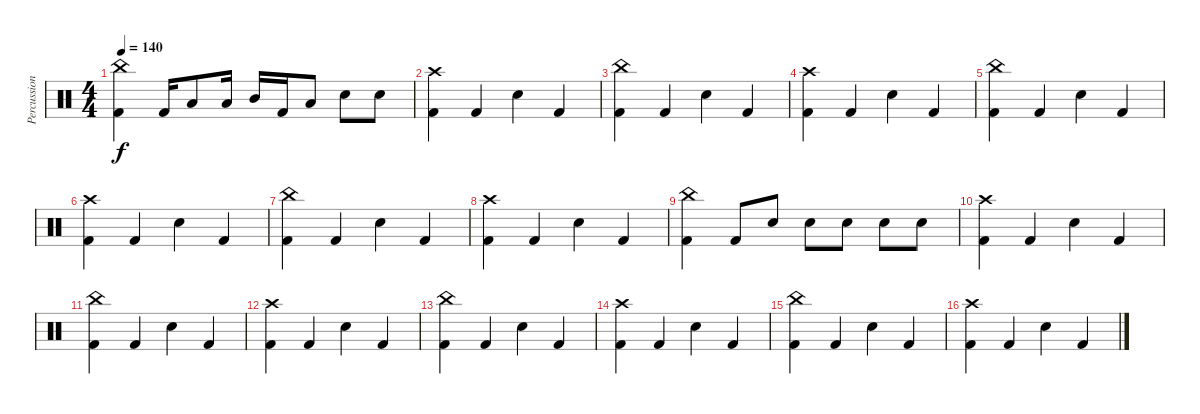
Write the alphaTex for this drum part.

\track ("Percussion" "Percussion") {instrument percussion}
\staff {score}
\articulation defaults
\ts (4 4)
\tempo 140
\clef neutral
\ks c
("Kick (hit) 2" "China (hit)").4{dy f} "Kick (hit) 2".16 "Low Tom (hit)".8 "Low Floor Tom (hit)".16 "Mid Tom (hit)".16 "Kick (hit) 2".16 "Low Floor Tom (hit)".8 "Snare (hit) 2".8 "Snare (hit) 2".8 |
("Kick (hit) 2" "Crash high (hit)").4 "Kick (hit) 2".4 "Snare (hit) 2".4 "Kick (hit) 2".4 |
("Kick (hit) 2" "China (hit)").4 "Kick (hit) 2".4 "Snare (hit) 2".4 "Kick (hit) 2".4 |
("Kick (hit) 2" "Crash high (hit)").4 "Kick (hit) 2".4 "Snare (hit) 2".4 "Kick (hit) 2".4 |
("Kick (hit) 2" "China (hit)").4 "Kick (hit) 2".4 "Snare (hit) 2".4 "Kick (hit) 2".4 |
("Kick (hit) 2" "Crash high (hit)").4 "Kick (hit) 2".4 "Snare (hit) 2".4 "Kick (hit) 2".4 |
("Kick (hit) 2" "China (hit)").4 "Kick (hit) 2".4 "Snare (hit) 2".4 "Kick (hit) 2".4 |
("Kick (hit) 2" "Crash high (hit)").4 "Kick (hit) 2".4 "Snare (hit) 2".4 "Kick (hit) 2".4 |
("Kick (hit) 2" "China (hit)").4 "Kick (hit) 2".8 "Snare (hit) 2".8 "Snare (hit) 2".8 "Snare (hit) 2".8 "Snare (hit) 2".8 "Snare (hit) 2".8 |
("Kick (hit) 2" "Crash high (hit)").4 "Kick (hit) 2".4 "Snare (hit) 2".4 "Kick (hit) 2".4 |
("Kick (hit) 2" "China (hit)").4 "Kick (hit) 2".4 "Snare (hit) 2".4 "Kick (hit) 2".4 |
("Kick (hit) 2" "Crash high (hit)").4 "Kick (hit) 2".4 "Snare (hit) 2".4 "Kick (hit) 2".4 |
("Kick (hit) 2" "China (hit)").4 "Kick (hit) 2".4 "Snare (hit) 2".4 "Kick (hit) 2".4 |
("Kick (hit) 2" "Crash high (hit)").4 "Kick (hit) 2".4 "Snare (hit) 2".4 "Kick (hit) 2".4 |
("Kick (hit) 2" "China (hit)").4 "Kick (hit) 2".4 "Snare (hit) 2".4 "Kick (hit) 2".4 |
("Kick (hit) 2" "Crash high (hit)").4 "Kick (hit) 2".4 "Snare (hit) 2".4 "Kick (hit) 2".4
